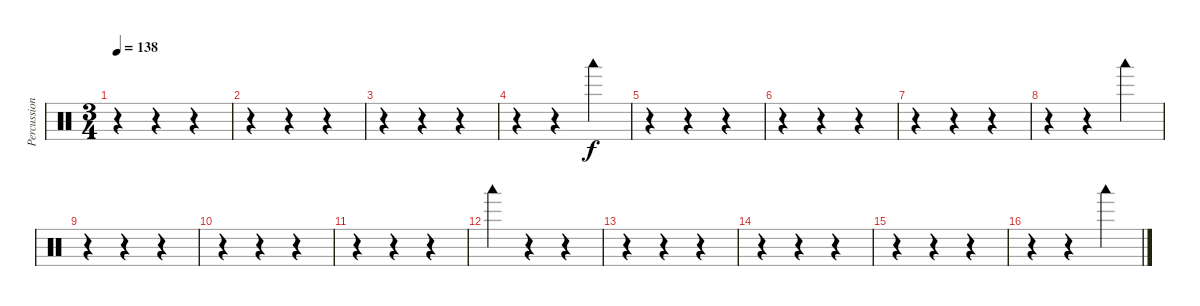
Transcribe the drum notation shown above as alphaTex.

\track ("Percussions" "Percussion") {instrument percussion}
\staff {score}
\articulation defaults
\ts (3 4)
\tempo 138
\clef neutral
\ks c
r.4{dy f} r.4 r.4 |
r.4 r.4 r.4 |
r.4 r.4 r.4 |
r.4 r.4 "Woodblock low (hit)".4 |
r.4 r.4 r.4 |
r.4 r.4 r.4 |
r.4 r.4 r.4 |
r.4 r.4 "Woodblock low (hit)".4 |
r.4 r.4 r.4 |
r.4 r.4 r.4 |
r.4 r.4 r.4 |
"Woodblock low (hit)".4 r.4 r.4 |
r.4 r.4 r.4 |
r.4 r.4 r.4 |
r.4 r.4 r.4 |
r.4 r.4 "Woodblock low (hit)".4
